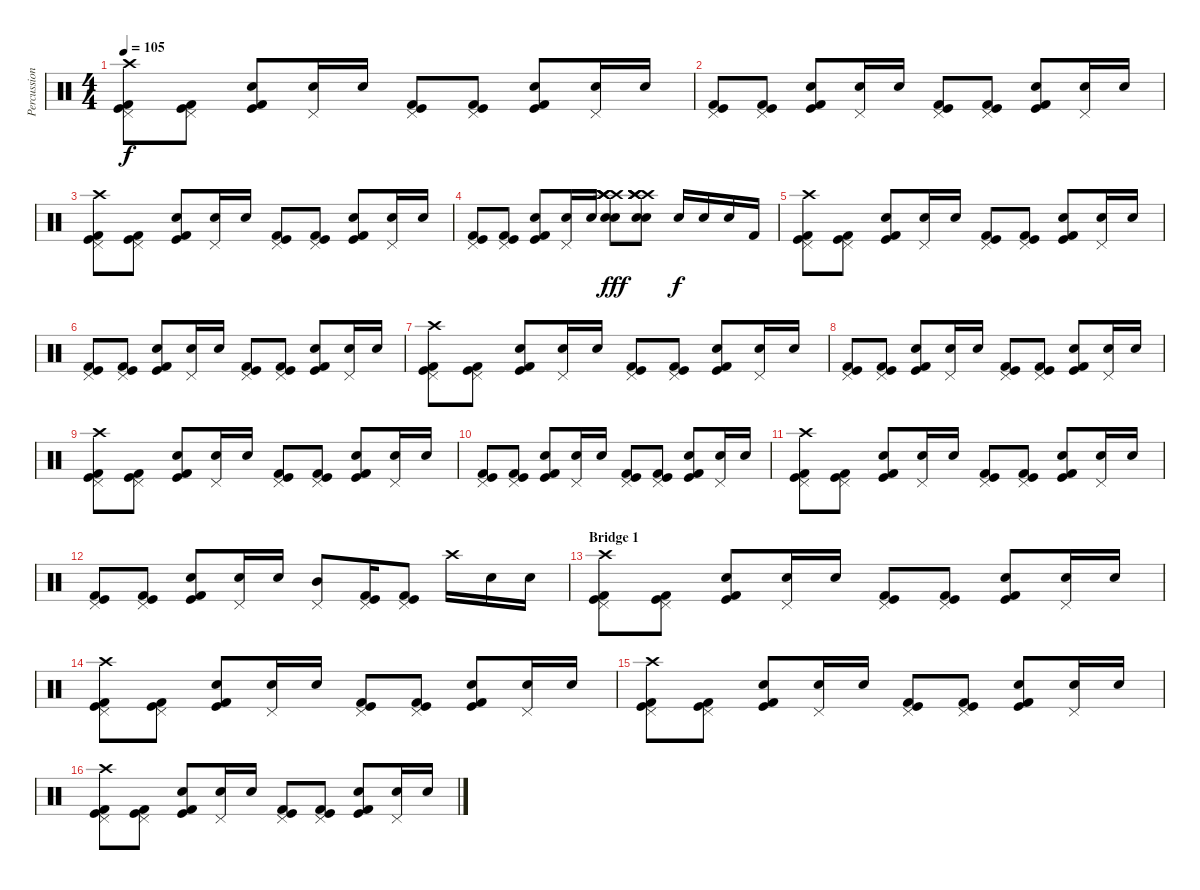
\track ("Percussion" "Percussion") {instrument percussion}
\staff {score}
\articulation defaults
\ts (4 4)
\tempo 105
\clef neutral
\ks c
("Kick (hit) 2" "Kick (hit)" "Pedal Hi-Hat (hit)" "Crash high (hit)").8{dy f} ("Kick (hit) 2" "Kick (hit)" "Pedal Hi-Hat (hit)").8 ("Kick (hit)" "Kick (hit) 2" "Electric Snare (hit)").8 ("Pedal Hi-Hat (hit)" "Electric Snare (hit)").16 "Snare (hit) 2".16 ("Kick (hit) 2" "Kick (hit)" "Pedal Hi-Hat (hit)").8 ("Kick (hit) 2" "Kick (hit)" "Pedal Hi-Hat (hit)").8 ("Kick (hit)" "Kick (hit) 2" "Electric Snare (hit)").8 ("Pedal Hi-Hat (hit)" "Electric Snare (hit)").16 "Snare (hit) 2".16 |
("Kick (hit) 2" "Kick (hit)" "Pedal Hi-Hat (hit)").8 ("Kick (hit) 2" "Kick (hit)" "Pedal Hi-Hat (hit)").8 ("Kick (hit)" "Kick (hit) 2" "Electric Snare (hit)").8 ("Pedal Hi-Hat (hit)" "Electric Snare (hit)").16 "Snare (hit) 2".16 ("Kick (hit) 2" "Kick (hit)" "Pedal Hi-Hat (hit)").8 ("Kick (hit) 2" "Kick (hit)" "Pedal Hi-Hat (hit)").8 ("Kick (hit)" "Kick (hit) 2" "Electric Snare (hit)").8 ("Pedal Hi-Hat (hit)" "Electric Snare (hit)").16 "Snare (hit) 2".16 |
("Kick (hit) 2" "Kick (hit)" "Pedal Hi-Hat (hit)" "Crash high (hit)").8 ("Kick (hit) 2" "Kick (hit)" "Pedal Hi-Hat (hit)").8 ("Kick (hit)" "Kick (hit) 2" "Electric Snare (hit)").8 ("Pedal Hi-Hat (hit)" "Electric Snare (hit)").16 "Snare (hit) 2".16 ("Kick (hit) 2" "Kick (hit)" "Pedal Hi-Hat (hit)").8 ("Kick (hit) 2" "Kick (hit)" "Pedal Hi-Hat (hit)").8 ("Kick (hit)" "Kick (hit) 2" "Electric Snare (hit)").8 ("Pedal Hi-Hat (hit)" "Electric Snare (hit)").16 "Snare (hit) 2".16 |
("Kick (hit) 2" "Kick (hit)" "Pedal Hi-Hat (hit)").8 ("Kick (hit) 2" "Kick (hit)" "Pedal Hi-Hat (hit)").8 ("Kick (hit)" "Kick (hit) 2" "Electric Snare (hit)").8 ("Pedal Hi-Hat (hit)" "Electric Snare (hit)").16 "Snare (hit) 2".16 ("Crash high (hit)" "Snare (hit) 2" "Electric Snare (hit)" "Crash high (hit)" "Crash high (hit)" "Crash high (hit)").8{dy fff} ("Crash high (hit)" "Snare (hit) 2" "Electric Snare (hit)" "Crash high (hit)" "Crash high (hit)" "Crash high (hit)").8 "Electric Snare (hit)".16{dy f} "Snare (hit) 2".16 "Snare (hit) 2".16 "Kick (hit) 2".16 |
("Kick (hit) 2" "Kick (hit)" "Pedal Hi-Hat (hit)" "Crash high (hit)").8 ("Kick (hit) 2" "Kick (hit)" "Pedal Hi-Hat (hit)").8 ("Kick (hit)" "Kick (hit) 2" "Electric Snare (hit)").8 ("Pedal Hi-Hat (hit)" "Electric Snare (hit)").16 "Snare (hit) 2".16 ("Kick (hit) 2" "Kick (hit)" "Pedal Hi-Hat (hit)").8 ("Kick (hit) 2" "Kick (hit)" "Pedal Hi-Hat (hit)").8 ("Kick (hit)" "Kick (hit) 2" "Electric Snare (hit)").8 ("Pedal Hi-Hat (hit)" "Electric Snare (hit)").16 "Snare (hit) 2".16 |
("Kick (hit) 2" "Kick (hit)" "Pedal Hi-Hat (hit)").8 ("Kick (hit) 2" "Kick (hit)" "Pedal Hi-Hat (hit)").8 ("Kick (hit)" "Kick (hit) 2" "Electric Snare (hit)").8 ("Pedal Hi-Hat (hit)" "Electric Snare (hit)").16 "Snare (hit) 2".16 ("Kick (hit) 2" "Kick (hit)" "Pedal Hi-Hat (hit)").8 ("Kick (hit) 2" "Kick (hit)" "Pedal Hi-Hat (hit)").8 ("Kick (hit)" "Kick (hit) 2" "Electric Snare (hit)").8 ("Pedal Hi-Hat (hit)" "Electric Snare (hit)").16 "Snare (hit) 2".16 |
("Kick (hit) 2" "Kick (hit)" "Pedal Hi-Hat (hit)" "Crash high (hit)").8 ("Kick (hit) 2" "Kick (hit)" "Pedal Hi-Hat (hit)").8 ("Kick (hit)" "Kick (hit) 2" "Electric Snare (hit)").8 ("Pedal Hi-Hat (hit)" "Electric Snare (hit)").16 "Snare (hit) 2".16 ("Kick (hit) 2" "Kick (hit)" "Pedal Hi-Hat (hit)").8 ("Kick (hit) 2" "Kick (hit)" "Pedal Hi-Hat (hit)").8 ("Kick (hit)" "Kick (hit) 2" "Electric Snare (hit)").8 ("Pedal Hi-Hat (hit)" "Electric Snare (hit)").16 "Snare (hit) 2".16 |
("Kick (hit) 2" "Kick (hit)" "Pedal Hi-Hat (hit)").8 ("Kick (hit) 2" "Kick (hit)" "Pedal Hi-Hat (hit)").8 ("Kick (hit)" "Kick (hit) 2" "Electric Snare (hit)").8 ("Pedal Hi-Hat (hit)" "Electric Snare (hit)").16 "Snare (hit) 2".16 ("Kick (hit) 2" "Kick (hit)" "Pedal Hi-Hat (hit)").8 ("Kick (hit) 2" "Kick (hit)" "Pedal Hi-Hat (hit)").8 ("Kick (hit)" "Kick (hit) 2" "Electric Snare (hit)").8 ("Pedal Hi-Hat (hit)" "Electric Snare (hit)").16 "Snare (hit) 2".16 |
("Kick (hit) 2" "Kick (hit)" "Pedal Hi-Hat (hit)" "Crash high (hit)").8 ("Kick (hit) 2" "Kick (hit)" "Pedal Hi-Hat (hit)").8 ("Kick (hit)" "Kick (hit) 2" "Electric Snare (hit)").8 ("Pedal Hi-Hat (hit)" "Electric Snare (hit)").16 "Snare (hit) 2".16 ("Kick (hit) 2" "Kick (hit)" "Pedal Hi-Hat (hit)").8 ("Kick (hit) 2" "Kick (hit)" "Pedal Hi-Hat (hit)").8 ("Kick (hit)" "Kick (hit) 2" "Electric Snare (hit)").8 ("Pedal Hi-Hat (hit)" "Electric Snare (hit)").16 "Snare (hit) 2".16 |
("Kick (hit) 2" "Kick (hit)" "Pedal Hi-Hat (hit)").8 ("Kick (hit) 2" "Kick (hit)" "Pedal Hi-Hat (hit)").8 ("Kick (hit)" "Kick (hit) 2" "Electric Snare (hit)").8 ("Pedal Hi-Hat (hit)" "Electric Snare (hit)").16 "Snare (hit) 2".16 ("Kick (hit) 2" "Kick (hit)" "Pedal Hi-Hat (hit)").8 ("Kick (hit) 2" "Kick (hit)" "Pedal Hi-Hat (hit)").8 ("Kick (hit)" "Kick (hit) 2" "Electric Snare (hit)").8 ("Pedal Hi-Hat (hit)" "Electric Snare (hit)").16 "Snare (hit) 2".16 |
("Kick (hit) 2" "Kick (hit)" "Pedal Hi-Hat (hit)" "Crash high (hit)").8 ("Kick (hit) 2" "Kick (hit)" "Pedal Hi-Hat (hit)").8 ("Kick (hit)" "Kick (hit) 2" "Electric Snare (hit)").8 ("Pedal Hi-Hat (hit)" "Electric Snare (hit)").16 "Snare (hit) 2".16 ("Kick (hit) 2" "Kick (hit)" "Pedal Hi-Hat (hit)").8 ("Kick (hit) 2" "Kick (hit)" "Pedal Hi-Hat (hit)").8 ("Kick (hit)" "Kick (hit) 2" "Electric Snare (hit)").8 ("Pedal Hi-Hat (hit)" "Electric Snare (hit)").16 "Snare (hit) 2".16 |
("Kick (hit) 2" "Kick (hit)" "Pedal Hi-Hat (hit)").8 ("Kick (hit) 2" "Kick (hit)" "Pedal Hi-Hat (hit)").8 ("Kick (hit)" "Kick (hit) 2" "Electric Snare (hit)").8 ("Pedal Hi-Hat (hit)" "Electric Snare (hit)").16 "Snare (hit) 2".16 ("Mid Tom (hit)" "Pedal Hi-Hat (hit)").8 ("Kick (hit) 2" "Kick (hit)" "Pedal Hi-Hat (hit)").16 ("Kick (hit) 2" "Kick (hit)" "Pedal Hi-Hat (hit)").8 "Crash high (hit)".16 "Snare (hit) 2".16 "Snare (hit) 2".16 |
\section ("" "Bridge 1")
("Kick (hit) 2" "Kick (hit)" "Pedal Hi-Hat (hit)" "Crash high (hit)").8 ("Kick (hit) 2" "Kick (hit)" "Pedal Hi-Hat (hit)").8 ("Kick (hit)" "Kick (hit) 2" "Electric Snare (hit)").8 ("Pedal Hi-Hat (hit)" "Electric Snare (hit)").16 "Snare (hit) 2".16 ("Kick (hit) 2" "Kick (hit)" "Pedal Hi-Hat (hit)").8 ("Kick (hit) 2" "Kick (hit)" "Pedal Hi-Hat (hit)").8 ("Kick (hit)" "Kick (hit) 2" "Electric Snare (hit)").8 ("Pedal Hi-Hat (hit)" "Electric Snare (hit)").16 "Snare (hit) 2".16 |
("Kick (hit) 2" "Kick (hit)" "Pedal Hi-Hat (hit)" "Crash high (hit)").8 ("Kick (hit) 2" "Kick (hit)" "Pedal Hi-Hat (hit)").8 ("Kick (hit)" "Kick (hit) 2" "Electric Snare (hit)").8 ("Pedal Hi-Hat (hit)" "Electric Snare (hit)").16 "Snare (hit) 2".16 ("Kick (hit) 2" "Kick (hit)" "Pedal Hi-Hat (hit)").8 ("Kick (hit) 2" "Kick (hit)" "Pedal Hi-Hat (hit)").8 ("Kick (hit)" "Kick (hit) 2" "Electric Snare (hit)").8 ("Pedal Hi-Hat (hit)" "Electric Snare (hit)").16 "Electric Snare (hit)".16 |
("Kick (hit) 2" "Kick (hit)" "Pedal Hi-Hat (hit)" "Crash high (hit)").8 ("Kick (hit) 2" "Kick (hit)" "Pedal Hi-Hat (hit)").8 ("Kick (hit)" "Kick (hit) 2" "Electric Snare (hit)").8 ("Pedal Hi-Hat (hit)" "Electric Snare (hit)").16 "Snare (hit) 2".16 ("Kick (hit) 2" "Kick (hit)" "Pedal Hi-Hat (hit)").8 ("Kick (hit) 2" "Kick (hit)" "Pedal Hi-Hat (hit)").8 ("Kick (hit)" "Kick (hit) 2" "Electric Snare (hit)").8 ("Pedal Hi-Hat (hit)" "Electric Snare (hit)").16 "Snare (hit) 2".16 |
("Kick (hit) 2" "Kick (hit)" "Pedal Hi-Hat (hit)" "Crash high (hit)").8 ("Kick (hit) 2" "Kick (hit)" "Pedal Hi-Hat (hit)").8 ("Kick (hit)" "Kick (hit) 2" "Electric Snare (hit)").8 ("Pedal Hi-Hat (hit)" "Electric Snare (hit)").16 "Snare (hit) 2".16 ("Kick (hit) 2" "Kick (hit)" "Pedal Hi-Hat (hit)").8 ("Kick (hit) 2" "Kick (hit)" "Pedal Hi-Hat (hit)").8 ("Kick (hit)" "Kick (hit) 2" "Electric Snare (hit)").8 ("Pedal Hi-Hat (hit)" "Electric Snare (hit)").16 "Electric Snare (hit)".16
